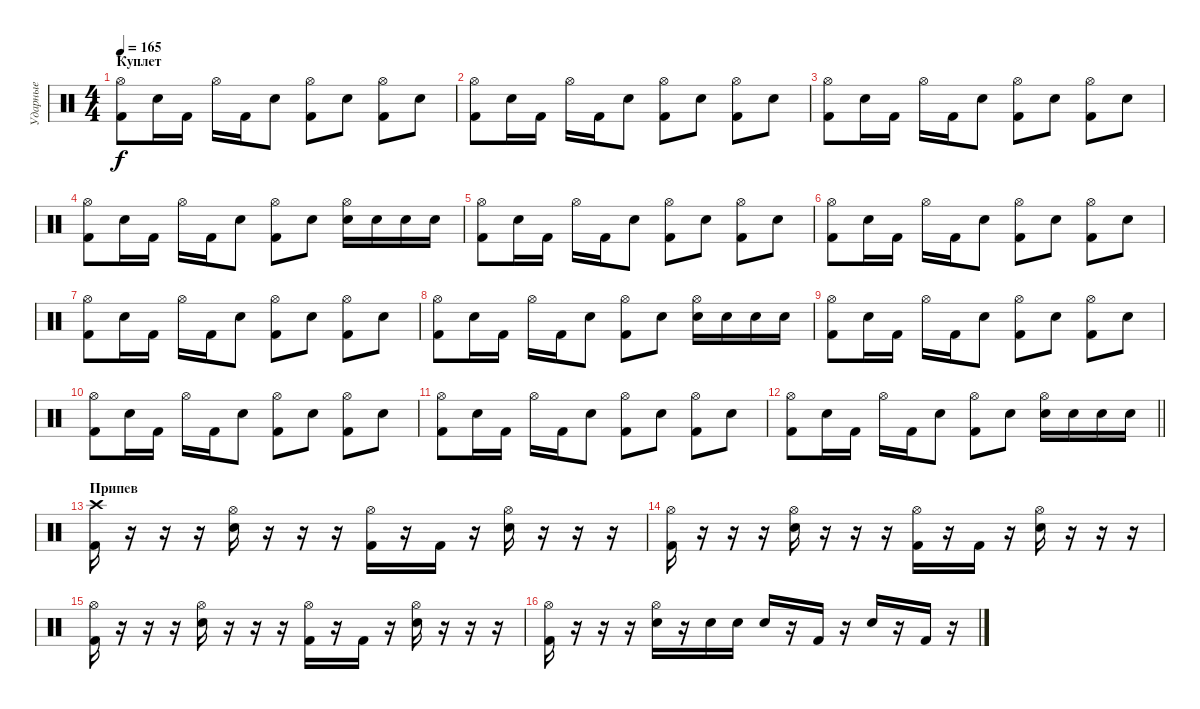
\track ("Ударные" "Ударные") {instrument percussion}
\staff {score}
\articulation defaults
\ts (4 4)
\section ("" "Куплет")
\tempo 165
\clef neutral
\ks c
("Kick (hit) 2" "Hi-Hat (open)").8{dy f} "Electric Snare (hit)".16 "Kick (hit) 2".16 "Hi-Hat (open)".16 "Kick (hit) 2".16 "Electric Snare (hit)".8 ("Kick (hit) 2" "Hi-Hat (open)").8 "Electric Snare (hit)".8 ("Kick (hit) 2" "Hi-Hat (open)").8 "Electric Snare (hit)".8 |
("Kick (hit) 2" "Hi-Hat (open)").8 "Electric Snare (hit)".16 "Kick (hit) 2".16 "Hi-Hat (open)".16 "Kick (hit) 2".16 "Electric Snare (hit)".8 ("Kick (hit) 2" "Hi-Hat (open)").8 "Electric Snare (hit)".8 ("Kick (hit) 2" "Hi-Hat (open)").8 "Electric Snare (hit)".8 |
("Kick (hit) 2" "Hi-Hat (open)").8 "Electric Snare (hit)".16 "Kick (hit) 2".16 "Hi-Hat (open)".16 "Kick (hit) 2".16 "Electric Snare (hit)".8 ("Kick (hit) 2" "Hi-Hat (open)").8 "Electric Snare (hit)".8 ("Kick (hit) 2" "Hi-Hat (open)").8 "Electric Snare (hit)".8 |
("Kick (hit) 2" "Hi-Hat (open)").8 "Electric Snare (hit)".16 "Kick (hit) 2".16 "Hi-Hat (open)".16 "Kick (hit) 2".16 "Electric Snare (hit)".8 ("Kick (hit) 2" "Hi-Hat (open)").8 "Electric Snare (hit)".8 ("Electric Snare (hit)" "Hi-Hat (open)").16 "Electric Snare (hit)".16 "Electric Snare (hit)".16 "Electric Snare (hit)".16 |
("Kick (hit) 2" "Hi-Hat (open)").8 "Electric Snare (hit)".16 "Kick (hit) 2".16 "Hi-Hat (open)".16 "Kick (hit) 2".16 "Electric Snare (hit)".8 ("Kick (hit) 2" "Hi-Hat (open)").8 "Electric Snare (hit)".8 ("Kick (hit) 2" "Hi-Hat (open)").8 "Electric Snare (hit)".8 |
("Kick (hit) 2" "Hi-Hat (open)").8 "Electric Snare (hit)".16 "Kick (hit) 2".16 "Hi-Hat (open)".16 "Kick (hit) 2".16 "Electric Snare (hit)".8 ("Kick (hit) 2" "Hi-Hat (open)").8 "Electric Snare (hit)".8 ("Kick (hit) 2" "Hi-Hat (open)").8 "Electric Snare (hit)".8 |
("Kick (hit) 2" "Hi-Hat (open)").8 "Electric Snare (hit)".16 "Kick (hit) 2".16 "Hi-Hat (open)".16 "Kick (hit) 2".16 "Electric Snare (hit)".8 ("Kick (hit) 2" "Hi-Hat (open)").8 "Electric Snare (hit)".8 ("Kick (hit) 2" "Hi-Hat (open)").8 "Electric Snare (hit)".8 |
("Kick (hit) 2" "Hi-Hat (open)").8 "Electric Snare (hit)".16 "Kick (hit) 2".16 "Hi-Hat (open)".16 "Kick (hit) 2".16 "Electric Snare (hit)".8 ("Kick (hit) 2" "Hi-Hat (open)").8 "Electric Snare (hit)".8 ("Electric Snare (hit)" "Hi-Hat (open)").16 "Electric Snare (hit)".16 "Electric Snare (hit)".16 "Electric Snare (hit)".16 |
("Kick (hit) 2" "Hi-Hat (open)").8 "Electric Snare (hit)".16 "Kick (hit) 2".16 "Hi-Hat (open)".16 "Kick (hit) 2".16 "Electric Snare (hit)".8 ("Kick (hit) 2" "Hi-Hat (open)").8 "Electric Snare (hit)".8 ("Kick (hit) 2" "Hi-Hat (open)").8 "Electric Snare (hit)".8 |
("Kick (hit) 2" "Hi-Hat (open)").8 "Electric Snare (hit)".16 "Kick (hit) 2".16 "Hi-Hat (open)".16 "Kick (hit) 2".16 "Electric Snare (hit)".8 ("Kick (hit) 2" "Hi-Hat (open)").8 "Electric Snare (hit)".8 ("Kick (hit) 2" "Hi-Hat (open)").8 "Electric Snare (hit)".8 |
("Kick (hit) 2" "Hi-Hat (open)").8 "Electric Snare (hit)".16 "Kick (hit) 2".16 "Hi-Hat (open)".16 "Kick (hit) 2".16 "Electric Snare (hit)".8 ("Kick (hit) 2" "Hi-Hat (open)").8 "Electric Snare (hit)".8 ("Kick (hit) 2" "Hi-Hat (open)").8 "Electric Snare (hit)".8 |
\barLineRight lightlight
("Kick (hit) 2" "Hi-Hat (open)").8 "Electric Snare (hit)".16 "Kick (hit) 2".16 "Hi-Hat (open)".16 "Kick (hit) 2".16 "Electric Snare (hit)".8 ("Kick (hit) 2" "Hi-Hat (open)").8 "Electric Snare (hit)".8 ("Electric Snare (hit)" "Hi-Hat (open)").16 "Electric Snare (hit)".16 "Electric Snare (hit)".16 "Electric Snare (hit)".16 |
\section ("" "Припев")
("Kick (hit) 2" "Crash high (hit)").16 r.16 r.16 r.16 ("Electric Snare (hit)" "Hi-Hat (open)").16 r.16 r.16 r.16 ("Kick (hit) 2" "Hi-Hat (open)").16 r.16 "Kick (hit) 2".16 r.16 ("Electric Snare (hit)" "Hi-Hat (open)").16 r.16 r.16 r.16 |
("Kick (hit) 2" "Hi-Hat (open)").16 r.16 r.16 r.16 ("Electric Snare (hit)" "Hi-Hat (open)").16 r.16 r.16 r.16 ("Kick (hit) 2" "Hi-Hat (open)").16 r.16 "Kick (hit) 2".16 r.16 ("Electric Snare (hit)" "Hi-Hat (open)").16 r.16 r.16 r.16 |
("Kick (hit) 2" "Hi-Hat (open)").16 r.16 r.16 r.16 ("Electric Snare (hit)" "Hi-Hat (open)").16 r.16 r.16 r.16 ("Kick (hit) 2" "Hi-Hat (open)").16 r.16 "Kick (hit) 2".16 r.16 ("Electric Snare (hit)" "Hi-Hat (open)").16 r.16 r.16 r.16 |
("Kick (hit) 2" "Hi-Hat (open)").16 r.16 r.16 r.16 ("Electric Snare (hit)" "Hi-Hat (open)").16 r.16 "Electric Snare (hit)".16 "Electric Snare (hit)".16 "Electric Snare (hit)".16 r.16 "Kick (hit) 2".16 r.16 "Electric Snare (hit)".16 r.16 "Kick (hit) 2".16 r.16
